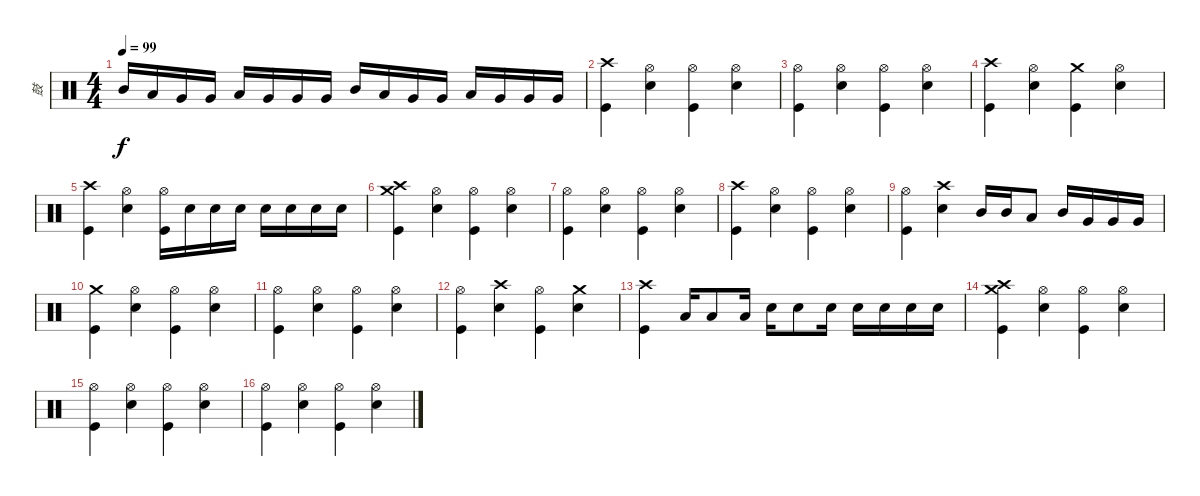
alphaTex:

\track ("鼓" "鼓") {instrument percussion}
\staff {score}
\articulation defaults
\ts (4 4)
\tempo 99
\clef neutral
\ks c "Mid Tom (hit)".16{dy f} "Low Tom (hit)".16 "Very Low Tom (hit)".16 "Very Low Tom (hit)".16 "Low Tom (hit)".16 "Very Low Tom (hit)".16 "Very Low Tom (hit)".16 "Very Low Tom (hit)".16 "Mid Tom (hit)".16 "Low Tom (hit)".16 "Very Low Tom (hit)".16 "Very Low Tom (hit)".16 "Low Tom (hit)".16 "Very Low Tom (hit)".16 "Very Low Tom (hit)".16 "Very Low Tom (hit)".16
|
("Crash high (hit)" "Kick (hit)").4 ("Hi-Hat (open)" "Snare (hit) 2").4 ("Hi-Hat (open)" "Kick (hit)").4 ("Hi-Hat (open)" "Snare (hit) 2").4 |
("Hi-Hat (open)" "Kick (hit)").4 ("Hi-Hat (open)" "Snare (hit) 2").4 ("Hi-Hat (open)" "Kick (hit)").4 ("Hi-Hat (open)" "Snare (hit) 2").4 |
("Crash high (hit)" "Kick (hit)").4 ("Hi-Hat (open)" "Snare (hit) 2").4 ("Crash medium (hit)" "Kick (hit)").4 ("Hi-Hat (open)" "Snare (hit) 2").4 |
("Crash high (hit)" "Kick (hit)").4 ("Hi-Hat (open)" "Snare (hit) 2").4 ("Hi-Hat (open)" "Kick (hit)").16 "Snare (hit) 2".16 "Snare (hit) 2".16 "Snare (hit) 2".16 "Snare (hit) 2".16 "Snare (hit) 2".16 "Snare (hit) 2".16 "Snare (hit) 2".16 |
("Crash medium (hit)" "Kick (hit)" "Crash high (hit)").4 ("Hi-Hat (open)" "Snare (hit) 2").4 ("Hi-Hat (open)" "Kick (hit)").4 ("Hi-Hat (open)" "Snare (hit) 2").4 |
("Hi-Hat (open)" "Kick (hit)").4 ("Hi-Hat (open)" "Snare (hit) 2").4 ("Hi-Hat (open)" "Kick (hit)").4 ("Hi-Hat (open)" "Snare (hit) 2").4 |
("Crash high (hit)" "Kick (hit)").4 ("Hi-Hat (open)" "Snare (hit) 2").4 ("Hi-Hat (open)" "Kick (hit)").4 ("Hi-Hat (open)" "Snare (hit) 2").4 |
("Hi-Hat (open)" "Kick (hit)").4 ("Crash high (hit)" "Snare (hit) 2").4 "Mid Tom (hit)".16 "Mid Tom (hit)".16 "Low Tom (hit)".8 "Mid Tom (hit)".16 "Very Low Tom (hit)".16 "Very Low Tom (hit)".16 "Very Low Tom (hit)".16 |
("Crash medium (hit)" "Kick (hit)").4 ("Hi-Hat (open)" "Snare (hit) 2").4 ("Hi-Hat (open)" "Kick (hit)").4 ("Hi-Hat (open)" "Snare (hit) 2").4 |
("Hi-Hat (open)" "Kick (hit)").4 ("Hi-Hat (open)" "Snare (hit) 2").4 ("Hi-Hat (open)" "Kick (hit)").4 ("Hi-Hat (open)" "Snare (hit) 2").4 |
("Hi-Hat (open)" "Kick (hit)").4 ("Crash high (hit)" "Snare (hit) 2").4 ("Hi-Hat (open)" "Kick (hit)").4 ("Crash medium (hit)" "Snare (hit) 2").4 |
("Crash high (hit)" "Kick (hit)").4 "Low Tom (hit)".16 "Low Tom (hit)".8 "Low Tom (hit)".16 "Snare (hit) 2".16 "Snare (hit) 2".8 "Snare (hit) 2".16 "Snare (hit) 2".16 "Snare (hit) 2".16 "Snare (hit) 2".16 "Snare (hit) 2".16 |
("Crash medium (hit)" "Kick (hit)" "Crash high (hit)").4 ("Hi-Hat (open)" "Snare (hit) 2").4 ("Hi-Hat (open)" "Kick (hit)").4 ("Hi-Hat (open)" "Snare (hit) 2").4 |
("Hi-Hat (open)" "Kick (hit)").4 ("Hi-Hat (open)" "Snare (hit) 2").4 ("Hi-Hat (open)" "Kick (hit)").4 ("Hi-Hat (open)" "Snare (hit) 2").4 |
("Hi-Hat (open)" "Kick (hit)").4 ("Hi-Hat (open)" "Snare (hit) 2").4 ("Hi-Hat (open)" "Kick (hit)").4 ("Hi-Hat (open)" "Snare (hit) 2").4
